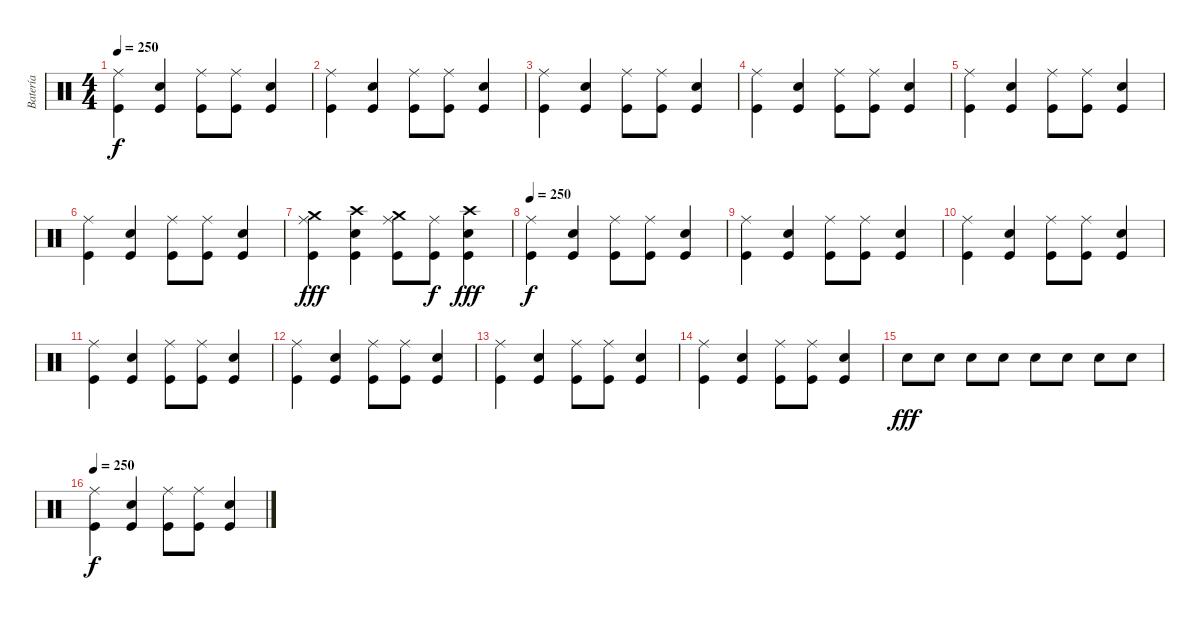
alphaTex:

\track ("Batería" "Batería") {instrument percussion}
\staff {score}
\articulation defaults
\ts (4 4)
\tempo 250
\clef neutral
\ks c
("Ride (middle)" "Kick (hit)").4{dy f} ("Electric Snare (hit)" "Kick (hit)").4 ("Ride (middle)" "Kick (hit)").8 ("Ride (middle)" "Kick (hit)").8 ("Electric Snare (hit)" "Kick (hit)").4 |
("Ride (middle)" "Kick (hit)").4 ("Electric Snare (hit)" "Kick (hit)").4 ("Ride (middle)" "Kick (hit)").8 ("Ride (middle)" "Kick (hit)").8 ("Electric Snare (hit)" "Kick (hit)").4 |
("Ride (middle)" "Kick (hit)").4 ("Electric Snare (hit)" "Kick (hit)").4 ("Ride (middle)" "Kick (hit)").8 ("Ride (middle)" "Kick (hit)").8 ("Electric Snare (hit)" "Kick (hit)").4 |
("Ride (middle)" "Kick (hit)").4 ("Electric Snare (hit)" "Kick (hit)").4 ("Ride (middle)" "Kick (hit)").8 ("Ride (middle)" "Kick (hit)").8 ("Electric Snare (hit)" "Kick (hit)").4 |
("Ride (middle)" "Kick (hit)").4 ("Electric Snare (hit)" "Kick (hit)").4 ("Ride (middle)" "Kick (hit)").8 ("Ride (middle)" "Kick (hit)").8 ("Electric Snare (hit)" "Kick (hit)").4 |
("Ride (middle)" "Kick (hit)").4 ("Electric Snare (hit)" "Kick (hit)").4 ("Ride (middle)" "Kick (hit)").8 ("Ride (middle)" "Kick (hit)").8 ("Electric Snare (hit)" "Kick (hit)").4 |
("Ride (middle)" "Crash medium (hit)" "Kick (hit)").4{dy fff} ("Electric Snare (hit)" "Crash high (hit)" "Kick (hit)").4 ("Ride (middle)" "Crash medium (hit)" "Kick (hit)").8 ("Ride (middle)" "Kick (hit)").8{dy f} ("Electric Snare (hit)" "Crash high (hit)" "Kick (hit)").4{dy fff} |
\tempo 250
("Ride (middle)" "Kick (hit)").4{dy f} ("Electric Snare (hit)" "Kick (hit)").4 ("Ride (middle)" "Kick (hit)").8 ("Ride (middle)" "Kick (hit)").8 ("Electric Snare (hit)" "Kick (hit)").4 |
("Ride (middle)" "Kick (hit)").4 ("Electric Snare (hit)" "Kick (hit)").4 ("Ride (middle)" "Kick (hit)").8 ("Ride (middle)" "Kick (hit)").8 ("Electric Snare (hit)" "Kick (hit)").4 |
("Ride (middle)" "Kick (hit)").4 ("Electric Snare (hit)" "Kick (hit)").4 ("Ride (middle)" "Kick (hit)").8 ("Ride (middle)" "Kick (hit)").8 ("Electric Snare (hit)" "Kick (hit)").4 |
("Ride (middle)" "Kick (hit)").4 ("Electric Snare (hit)" "Kick (hit)").4 ("Ride (middle)" "Kick (hit)").8 ("Ride (middle)" "Kick (hit)").8 ("Electric Snare (hit)" "Kick (hit)").4 |
("Ride (middle)" "Kick (hit)").4 ("Electric Snare (hit)" "Kick (hit)").4 ("Ride (middle)" "Kick (hit)").8 ("Ride (middle)" "Kick (hit)").8 ("Electric Snare (hit)" "Kick (hit)").4 |
("Ride (middle)" "Kick (hit)").4 ("Electric Snare (hit)" "Kick (hit)").4 ("Ride (middle)" "Kick (hit)").8 ("Ride (middle)" "Kick (hit)").8 ("Electric Snare (hit)" "Kick (hit)").4 |
("Ride (middle)" "Kick (hit)").4 ("Electric Snare (hit)" "Kick (hit)").4 ("Ride (middle)" "Kick (hit)").8 ("Ride (middle)" "Kick (hit)").8 ("Electric Snare (hit)" "Kick (hit)").4 |
"Electric Snare (hit)".8{dy fff} "Electric Snare (hit)".8 "Electric Snare (hit)".8 "Electric Snare (hit)".8 "Electric Snare (hit)".8 "Electric Snare (hit)".8 "Electric Snare (hit)".8 "Electric Snare (hit)".8 |
\tempo 250
("Ride (middle)" "Kick (hit)").4{dy f} ("Electric Snare (hit)" "Kick (hit)").4 ("Ride (middle)" "Kick (hit)").8 ("Ride (middle)" "Kick (hit)").8 ("Electric Snare (hit)" "Kick (hit)").4
